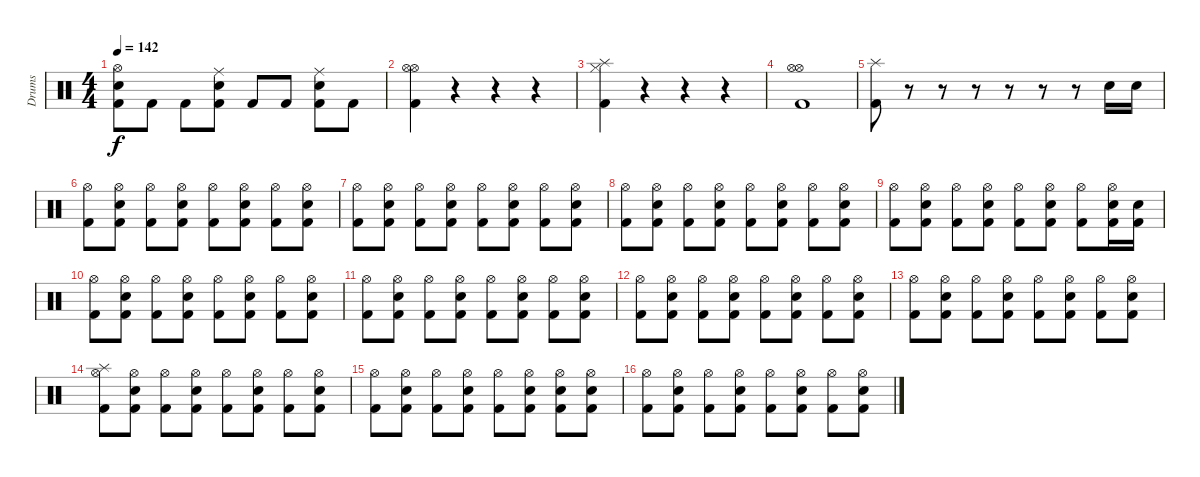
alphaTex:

\track ("Drums" "Drums") {instrument percussion}
\staff {score}
\articulation defaults
\ts (4 4)
\tempo 142
\clef neutral
\ks c
("Hi-Hat (open)" "Snare (hit) 2" "Kick (hit) 2").8{dy f} "Kick (hit) 2".8 "Kick (hit) 2".8 ("Ride (middle)" "Snare (hit) 2" "Kick (hit) 2").8 "Kick (hit) 2".8 "Kick (hit) 2".8 ("Ride (middle)" "Snare (hit) 2" "Kick (hit) 2").8 "Kick (hit) 2".8 |
("Hi-Hat (open)" "Hi-Hat (open)" "Kick (hit) 2").4 r.4 r.4 r.4 |
("Splash (hit)" "Hi-Hat (closed)" "Kick (hit) 2").4 r.4 r.4 r.4 |
("Hi-Hat (open)" "Hi-Hat (open)" "Kick (hit) 2").1 |
("Splash (hit)" "Kick (hit) 2").8 r.8 r.8 r.8 r.8 r.8 r.8 "Snare (hit) 2".16 "Snare (hit) 2".16 |
("Hi-Hat (open)" "Kick (hit) 2").8 ("Hi-Hat (open)" "Snare (hit) 2" "Kick (hit) 2").8 ("Hi-Hat (open)" "Kick (hit) 2").8 ("Hi-Hat (open)" "Snare (hit) 2" "Kick (hit) 2").8 ("Hi-Hat (open)" "Kick (hit) 2").8 ("Hi-Hat (open)" "Snare (hit) 2" "Kick (hit) 2").8 ("Hi-Hat (open)" "Kick (hit) 2").8 ("Hi-Hat (open)" "Snare (hit) 2" "Kick (hit) 2").8 |
("Hi-Hat (open)" "Kick (hit) 2").8 ("Hi-Hat (open)" "Snare (hit) 2" "Kick (hit) 2").8 ("Hi-Hat (open)" "Kick (hit) 2").8 ("Hi-Hat (open)" "Snare (hit) 2" "Kick (hit) 2").8 ("Hi-Hat (open)" "Kick (hit) 2").8 ("Hi-Hat (open)" "Snare (hit) 2" "Kick (hit) 2").8 ("Hi-Hat (open)" "Kick (hit) 2").8 ("Hi-Hat (open)" "Snare (hit) 2" "Kick (hit) 2").8 |
("Hi-Hat (open)" "Kick (hit) 2").8 ("Hi-Hat (open)" "Snare (hit) 2" "Kick (hit) 2").8 ("Hi-Hat (open)" "Kick (hit) 2").8 ("Hi-Hat (open)" "Snare (hit) 2" "Kick (hit) 2").8 ("Hi-Hat (open)" "Kick (hit) 2").8 ("Hi-Hat (open)" "Snare (hit) 2" "Kick (hit) 2").8 ("Hi-Hat (open)" "Kick (hit) 2").8 ("Hi-Hat (open)" "Snare (hit) 2" "Kick (hit) 2").8 |
("Hi-Hat (open)" "Kick (hit) 2").8 ("Hi-Hat (open)" "Snare (hit) 2" "Kick (hit) 2").8 ("Hi-Hat (open)" "Kick (hit) 2").8 ("Hi-Hat (open)" "Snare (hit) 2" "Kick (hit) 2").8 ("Hi-Hat (open)" "Kick (hit) 2").8 ("Hi-Hat (open)" "Snare (hit) 2" "Kick (hit) 2").8 ("Hi-Hat (open)" "Kick (hit) 2").8 ("Hi-Hat (open)" "Snare (hit) 2" "Kick (hit) 2").16 ("Snare (hit) 2" "Kick (hit) 2").16 |
("Hi-Hat (open)" "Kick (hit) 2").8 ("Hi-Hat (open)" "Snare (hit) 2" "Kick (hit) 2").8 ("Hi-Hat (open)" "Kick (hit) 2").8 ("Hi-Hat (open)" "Snare (hit) 2" "Kick (hit) 2").8 ("Hi-Hat (open)" "Kick (hit) 2").8 ("Hi-Hat (open)" "Snare (hit) 2" "Kick (hit) 2").8 ("Hi-Hat (open)" "Kick (hit) 2").8 ("Hi-Hat (open)" "Snare (hit) 2" "Kick (hit) 2").8 |
("Hi-Hat (open)" "Kick (hit) 2").8 ("Hi-Hat (open)" "Snare (hit) 2" "Kick (hit) 2").8 ("Hi-Hat (open)" "Kick (hit) 2").8 ("Hi-Hat (open)" "Snare (hit) 2" "Kick (hit) 2").8 ("Hi-Hat (open)" "Kick (hit) 2").8 ("Hi-Hat (open)" "Snare (hit) 2" "Kick (hit) 2").8 ("Hi-Hat (open)" "Kick (hit) 2").8 ("Hi-Hat (open)" "Snare (hit) 2" "Kick (hit) 2").8 |
("Hi-Hat (open)" "Kick (hit) 2").8 ("Hi-Hat (open)" "Snare (hit) 2" "Kick (hit) 2").8 ("Hi-Hat (open)" "Kick (hit) 2").8 ("Hi-Hat (open)" "Snare (hit) 2" "Kick (hit) 2").8 ("Hi-Hat (open)" "Kick (hit) 2").8 ("Hi-Hat (open)" "Snare (hit) 2" "Kick (hit) 2").8 ("Hi-Hat (open)" "Kick (hit) 2").8 ("Hi-Hat (open)" "Snare (hit) 2" "Kick (hit) 2").8 |
("Hi-Hat (open)" "Kick (hit) 2").8 ("Hi-Hat (open)" "Snare (hit) 2" "Kick (hit) 2").8 ("Hi-Hat (open)" "Kick (hit) 2").8 ("Hi-Hat (open)" "Snare (hit) 2" "Kick (hit) 2").8 ("Hi-Hat (open)" "Kick (hit) 2").8 ("Hi-Hat (open)" "Snare (hit) 2" "Kick (hit) 2").8 ("Hi-Hat (open)" "Kick (hit) 2").8 ("Hi-Hat (open)" "Snare (hit) 2" "Kick (hit) 2").8 |
("Splash (hit)" "Hi-Hat (open)" "Kick (hit) 2").8 ("Hi-Hat (open)" "Snare (hit) 2" "Kick (hit) 2").8 ("Hi-Hat (open)" "Kick (hit) 2").8 ("Hi-Hat (open)" "Snare (hit) 2" "Kick (hit) 2").8 ("Hi-Hat (open)" "Kick (hit) 2").8 ("Hi-Hat (open)" "Snare (hit) 2" "Kick (hit) 2").8 ("Hi-Hat (open)" "Kick (hit) 2").8 ("Hi-Hat (open)" "Snare (hit) 2" "Kick (hit) 2").8 |
("Hi-Hat (open)" "Kick (hit) 2").8 ("Hi-Hat (open)" "Snare (hit) 2" "Kick (hit) 2").8 ("Hi-Hat (open)" "Kick (hit) 2").8 ("Hi-Hat (open)" "Snare (hit) 2" "Kick (hit) 2").8 ("Hi-Hat (open)" "Kick (hit) 2").8 ("Hi-Hat (open)" "Snare (hit) 2" "Kick (hit) 2").8 ("Hi-Hat (open)" "Snare (hit) 2" "Kick (hit) 2").8 ("Hi-Hat (open)" "Snare (hit) 2" "Kick (hit) 2").8 |
("Hi-Hat (open)" "Kick (hit) 2").8 ("Hi-Hat (open)" "Snare (hit) 2" "Kick (hit) 2").8 ("Hi-Hat (open)" "Kick (hit) 2").8 ("Hi-Hat (open)" "Snare (hit) 2" "Kick (hit) 2").8 ("Hi-Hat (open)" "Kick (hit) 2").8 ("Hi-Hat (open)" "Snare (hit) 2" "Kick (hit) 2").8 ("Hi-Hat (open)" "Kick (hit) 2").8 ("Hi-Hat (open)" "Snare (hit) 2" "Kick (hit) 2").8
